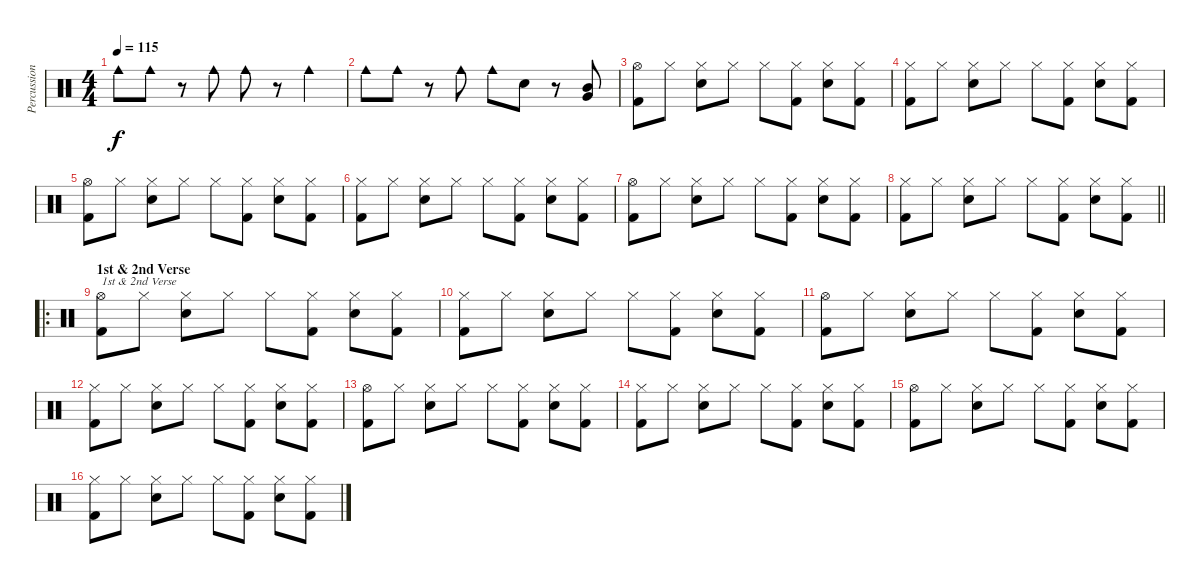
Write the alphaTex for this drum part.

\track ("Percussions" "Percussion") {instrument percussion}
\staff {score}
\articulation defaults
\ts (4 4)
\tempo 115
\clef neutral
\ks c "Cowbell medium (hit)".8{dy f} "Cowbell medium (hit)".8
r.8 "Cowbell medium (hit)".8 "Cowbell medium (hit)".8 r.8 "Cowbell medium (hit)".4 |
"Cowbell medium (hit)".8 "Cowbell medium (hit)".8 r.8 "Cowbell medium (hit)".8 "Cowbell medium (hit)".8 "Snare (hit) 2".8 r.8 ("Mid Tom (hit)" "Very Low Tom (hit)").8 |
("Hi-Hat (open)" "Kick (hit) 2").8 "Hi-Hat (closed)".8 ("Hi-Hat (closed)" "Snare (hit) 2").8 "Hi-Hat (closed)".8 "Hi-Hat (closed)".8 ("Hi-Hat (closed)" "Kick (hit) 2").8 ("Hi-Hat (closed)" "Snare (hit) 2").8 ("Hi-Hat (closed)" "Kick (hit) 2").8 |
("Hi-Hat (closed)" "Kick (hit) 2").8 "Hi-Hat (closed)".8 ("Hi-Hat (closed)" "Snare (hit) 2").8 "Hi-Hat (closed)".8 "Hi-Hat (closed)".8 ("Hi-Hat (closed)" "Kick (hit) 2").8 ("Hi-Hat (closed)" "Snare (hit) 2").8 ("Hi-Hat (closed)" "Kick (hit) 2").8 |
("Hi-Hat (open)" "Kick (hit) 2").8 "Hi-Hat (closed)".8 ("Hi-Hat (closed)" "Snare (hit) 2").8 "Hi-Hat (closed)".8 "Hi-Hat (closed)".8 ("Hi-Hat (closed)" "Kick (hit) 2").8 ("Hi-Hat (closed)" "Snare (hit) 2").8 ("Hi-Hat (closed)" "Kick (hit) 2").8 |
("Hi-Hat (closed)" "Kick (hit) 2").8 "Hi-Hat (closed)".8 ("Hi-Hat (closed)" "Snare (hit) 2").8 "Hi-Hat (closed)".8 "Hi-Hat (closed)".8 ("Hi-Hat (closed)" "Kick (hit) 2").8 ("Hi-Hat (closed)" "Snare (hit) 2").8 ("Hi-Hat (closed)" "Kick (hit) 2").8 |
("Hi-Hat (open)" "Kick (hit) 2").8 "Hi-Hat (closed)".8 ("Hi-Hat (closed)" "Snare (hit) 2").8 "Hi-Hat (closed)".8 "Hi-Hat (closed)".8 ("Hi-Hat (closed)" "Kick (hit) 2").8 ("Hi-Hat (closed)" "Snare (hit) 2").8 ("Hi-Hat (closed)" "Kick (hit) 2").8 |
\barLineRight lightlight
("Hi-Hat (closed)" "Kick (hit) 2").8 "Hi-Hat (closed)".8 ("Hi-Hat (closed)" "Snare (hit) 2").8 "Hi-Hat (closed)".8 "Hi-Hat (closed)".8 ("Hi-Hat (closed)" "Kick (hit) 2").8 ("Hi-Hat (closed)" "Snare (hit) 2").8 ("Hi-Hat (closed)" "Kick (hit) 2").8 |
\ro
\section ("" "1st & 2nd Verse")
("Hi-Hat (open)" "Kick (hit) 2").8{txt "1st & 2nd Verse"} "Hi-Hat (closed)".8 ("Hi-Hat (closed)" "Snare (hit) 2").8 "Hi-Hat (closed)".8 "Hi-Hat (closed)".8 ("Hi-Hat (closed)" "Kick (hit) 2").8 ("Hi-Hat (closed)" "Snare (hit) 2").8 ("Hi-Hat (closed)" "Kick (hit) 2").8 |
("Hi-Hat (closed)" "Kick (hit) 2").8 "Hi-Hat (closed)".8 ("Hi-Hat (closed)" "Snare (hit) 2").8 "Hi-Hat (closed)".8 "Hi-Hat (closed)".8 ("Hi-Hat (closed)" "Kick (hit) 2").8 ("Hi-Hat (closed)" "Snare (hit) 2").8 ("Hi-Hat (closed)" "Kick (hit) 2").8 |
("Hi-Hat (open)" "Kick (hit) 2").8 "Hi-Hat (closed)".8 ("Hi-Hat (closed)" "Snare (hit) 2").8 "Hi-Hat (closed)".8 "Hi-Hat (closed)".8 ("Hi-Hat (closed)" "Kick (hit) 2").8 ("Hi-Hat (closed)" "Snare (hit) 2").8 ("Hi-Hat (closed)" "Kick (hit) 2").8 |
("Hi-Hat (closed)" "Kick (hit) 2").8 "Hi-Hat (closed)".8 ("Hi-Hat (closed)" "Snare (hit) 2").8 "Hi-Hat (closed)".8 "Hi-Hat (closed)".8 ("Hi-Hat (closed)" "Kick (hit) 2").8 ("Hi-Hat (closed)" "Snare (hit) 2").8 ("Hi-Hat (closed)" "Kick (hit) 2").8 |
("Hi-Hat (open)" "Kick (hit) 2").8 "Hi-Hat (closed)".8 ("Hi-Hat (closed)" "Snare (hit) 2").8 "Hi-Hat (closed)".8 "Hi-Hat (closed)".8 ("Hi-Hat (closed)" "Kick (hit) 2").8 ("Hi-Hat (closed)" "Snare (hit) 2").8 ("Hi-Hat (closed)" "Kick (hit) 2").8 |
("Hi-Hat (closed)" "Kick (hit) 2").8 "Hi-Hat (closed)".8 ("Hi-Hat (closed)" "Snare (hit) 2").8 "Hi-Hat (closed)".8 "Hi-Hat (closed)".8 ("Hi-Hat (closed)" "Kick (hit) 2").8 ("Hi-Hat (closed)" "Snare (hit) 2").8 ("Hi-Hat (closed)" "Kick (hit) 2").8 |
("Hi-Hat (open)" "Kick (hit) 2").8 "Hi-Hat (closed)".8 ("Hi-Hat (closed)" "Snare (hit) 2").8 "Hi-Hat (closed)".8 "Hi-Hat (closed)".8 ("Hi-Hat (closed)" "Kick (hit) 2").8 ("Hi-Hat (closed)" "Snare (hit) 2").8 ("Hi-Hat (closed)" "Kick (hit) 2").8 |
("Hi-Hat (closed)" "Kick (hit) 2").8 "Hi-Hat (closed)".8 ("Hi-Hat (closed)" "Snare (hit) 2").8 "Hi-Hat (closed)".8 "Hi-Hat (closed)".8 ("Hi-Hat (closed)" "Kick (hit) 2").8 ("Hi-Hat (closed)" "Snare (hit) 2").8 ("Hi-Hat (closed)" "Kick (hit) 2").8
